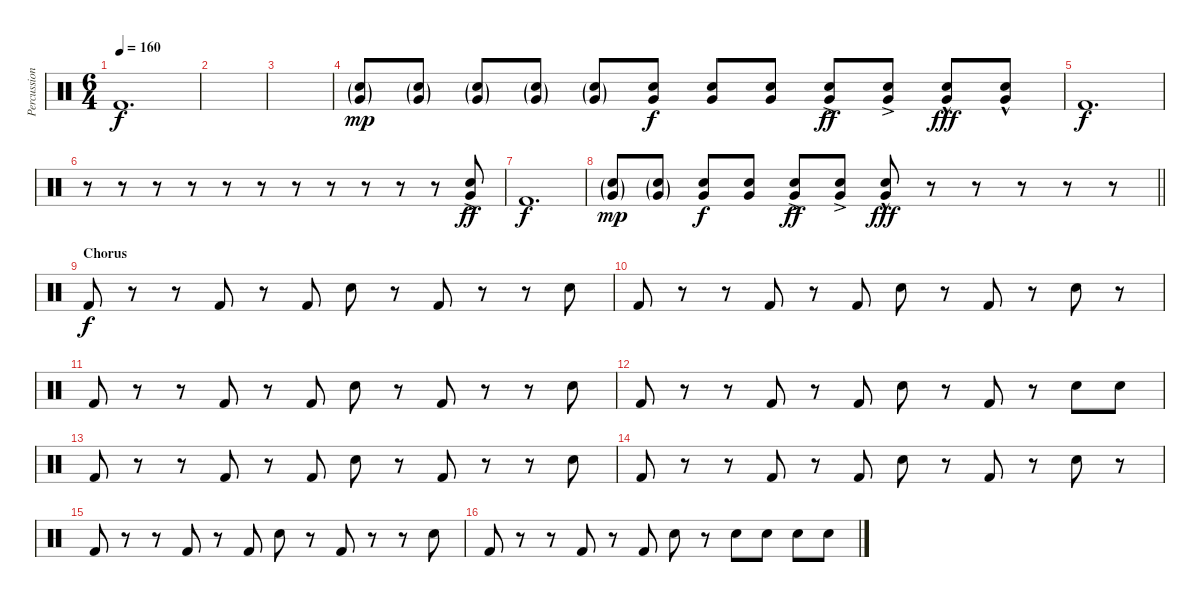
\track ("Percussion" "Percussion") {instrument percussion}
\staff {score}
\articulation defaults
\ts (6 4)
\tempo 160
\clef neutral
\ks c "Kick (hit) 2".1{d dy f}
|
|
|
("Snare (hit) 2"{g} "Very Low Tom (hit)"{g}).8{dy mp} ("Snare (hit) 2"{g} "Very Low Tom (hit)"{g}).8 ("Snare (hit) 2"{g} "Very Low Tom (hit)"{g}).8 ("Snare (hit) 2"{g} "Very Low Tom (hit)"{g}).8 ("Snare (hit) 2"{g} "Very Low Tom (hit)"{g}).8 ("Snare (hit) 2" "Very Low Tom (hit)").8{dy f} ("Snare (hit) 2" "Very Low Tom (hit)").8 ("Snare (hit) 2" "Very Low Tom (hit)").8 ("Snare (hit) 2"{ac} "Very Low Tom (hit)"{ac}).8{dy ff} ("Snare (hit) 2"{ac} "Very Low Tom (hit)"{ac}).8 ("Snare (hit) 2"{hac} "Very Low Tom (hit)"{hac}).8{dy fff} ("Snare (hit) 2"{hac} "Very Low Tom (hit)"{hac}).8 |
"Kick (hit) 2".1{d dy f} |
r.8 r.8 r.8 r.8 r.8 r.8 r.8 r.8 r.8 r.8 r.8 ("Snare (hit) 2"{ac} "Very Low Tom (hit)"{ac}).8{dy ff} |
"Kick (hit) 2".1{d dy f} |
\barLineRight lightlight
("Snare (hit) 2"{g} "Very Low Tom (hit)"{g}).8{dy mp} ("Snare (hit) 2"{g} "Very Low Tom (hit)"{g}).8 ("Snare (hit) 2" "Very Low Tom (hit)").8{dy f} ("Snare (hit) 2" "Very Low Tom (hit)").8 ("Snare (hit) 2"{ac} "Very Low Tom (hit)"{ac}).8{dy ff} ("Snare (hit) 2"{ac} "Very Low Tom (hit)"{ac}).8 ("Snare (hit) 2"{hac} "Very Low Tom (hit)"{hac}).8{dy fff} r.8 r.8 r.8 r.8 r.8 |
\section ("" "Chorus")
"Kick (hit) 2".8{dy f} r.8 r.8 "Kick (hit) 2".8 r.8 "Kick (hit) 2".8 "Snare (hit) 2".8 r.8 "Kick (hit) 2".8 r.8 r.8 "Snare (hit) 2".8 |
"Kick (hit) 2".8 r.8 r.8 "Kick (hit) 2".8 r.8 "Kick (hit) 2".8 "Snare (hit) 2".8 r.8 "Kick (hit) 2".8 r.8 "Snare (hit) 2".8 r.8 |
"Kick (hit) 2".8 r.8 r.8 "Kick (hit) 2".8 r.8 "Kick (hit) 2".8 "Snare (hit) 2".8 r.8 "Kick (hit) 2".8 r.8 r.8 "Snare (hit) 2".8 |
"Kick (hit) 2".8 r.8 r.8 "Kick (hit) 2".8 r.8 "Kick (hit) 2".8 "Snare (hit) 2".8 r.8 "Kick (hit) 2".8 r.8 "Snare (hit) 2".8 "Snare (hit) 2".8 |
"Kick (hit) 2".8 r.8 r.8 "Kick (hit) 2".8 r.8 "Kick (hit) 2".8 "Snare (hit) 2".8 r.8 "Kick (hit) 2".8 r.8 r.8 "Snare (hit) 2".8 |
"Kick (hit) 2".8 r.8 r.8 "Kick (hit) 2".8 r.8 "Kick (hit) 2".8 "Snare (hit) 2".8 r.8 "Kick (hit) 2".8 r.8 "Snare (hit) 2".8 r.8 |
"Kick (hit) 2".8 r.8 r.8 "Kick (hit) 2".8 r.8 "Kick (hit) 2".8 "Snare (hit) 2".8 r.8 "Kick (hit) 2".8 r.8 r.8 "Snare (hit) 2".8 |
"Kick (hit) 2".8 r.8 r.8 "Kick (hit) 2".8 r.8 "Kick (hit) 2".8 "Snare (hit) 2".8 r.8 "Snare (hit) 2".8 "Snare (hit) 2".8 "Snare (hit) 2".8 "Snare (hit) 2".8
